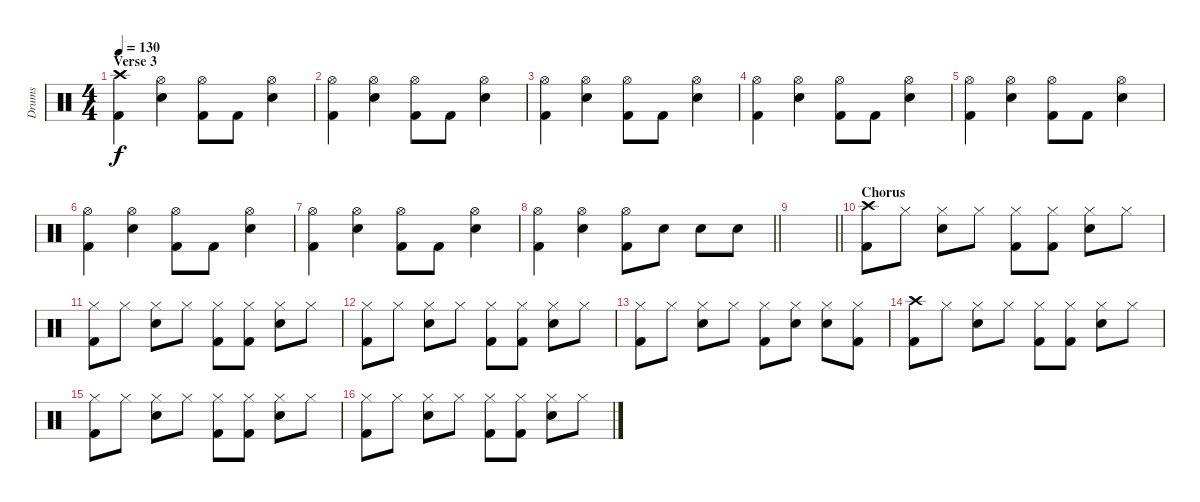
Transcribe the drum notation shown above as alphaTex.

\track ("Drums" "Drums") {instrument percussion}
\staff {score}
\articulation defaults
\ts (4 4)
\section ("" "Verse 3")
\tempo 130
\clef neutral
\ks c
("Crash high (hit)" "Kick (hit) 2").4{dy f} ("Hi-Hat (open)" "Electric Snare (hit)").4 ("Hi-Hat (open)" "Kick (hit) 2").8 "Kick (hit) 2".8 ("Hi-Hat (open)" "Electric Snare (hit)").4 |
("Hi-Hat (open)" "Kick (hit) 2").4 ("Hi-Hat (open)" "Electric Snare (hit)").4 ("Hi-Hat (open)" "Kick (hit) 2").8 "Kick (hit) 2".8 ("Hi-Hat (open)" "Electric Snare (hit)").4 |
("Hi-Hat (open)" "Kick (hit) 2").4 ("Hi-Hat (open)" "Electric Snare (hit)").4 ("Hi-Hat (open)" "Kick (hit) 2").8 "Kick (hit) 2".8 ("Hi-Hat (open)" "Electric Snare (hit)").4 |
("Hi-Hat (open)" "Kick (hit) 2").4 ("Hi-Hat (open)" "Electric Snare (hit)").4 ("Hi-Hat (open)" "Kick (hit) 2").8 "Kick (hit) 2".8 ("Hi-Hat (open)" "Electric Snare (hit)").4 |
("Hi-Hat (open)" "Kick (hit) 2").4 ("Hi-Hat (open)" "Electric Snare (hit)").4 ("Hi-Hat (open)" "Kick (hit) 2").8 "Kick (hit) 2".8 ("Hi-Hat (open)" "Electric Snare (hit)").4 |
("Hi-Hat (open)" "Kick (hit) 2").4 ("Hi-Hat (open)" "Electric Snare (hit)").4 ("Hi-Hat (open)" "Kick (hit) 2").8 "Kick (hit) 2".8 ("Hi-Hat (open)" "Electric Snare (hit)").4 |
("Hi-Hat (open)" "Kick (hit) 2").4 ("Hi-Hat (open)" "Electric Snare (hit)").4 ("Hi-Hat (open)" "Kick (hit) 2").8 "Kick (hit) 2".8 ("Hi-Hat (open)" "Electric Snare (hit)").4 |
\barLineRight lightlight
("Hi-Hat (open)" "Kick (hit) 2").4 ("Hi-Hat (open)" "Electric Snare (hit)").4 ("Hi-Hat (open)" "Kick (hit) 2").8 "Electric Snare (hit)".8 "Electric Snare (hit)".8 "Electric Snare (hit)".8 |
\barLineRight lightlight
|
\section ("" "Chorus")
("Crash high (hit)" "Kick (hit) 2").8 "Hi-Hat (closed)".8 ("Hi-Hat (closed)" "Electric Snare (hit)").8 "Hi-Hat (closed)".8 ("Hi-Hat (closed)" "Kick (hit) 2").8 ("Hi-Hat (closed)" "Kick (hit) 2").8 ("Hi-Hat (closed)" "Electric Snare (hit)").8 "Hi-Hat (closed)".8 |
("Hi-Hat (closed)" "Kick (hit) 2").8 "Hi-Hat (closed)".8 ("Hi-Hat (closed)" "Electric Snare (hit)").8 "Hi-Hat (closed)".8 ("Hi-Hat (closed)" "Kick (hit) 2").8 ("Hi-Hat (closed)" "Kick (hit) 2").8 ("Hi-Hat (closed)" "Electric Snare (hit)").8 "Hi-Hat (closed)".8 |
("Hi-Hat (closed)" "Kick (hit) 2").8 "Hi-Hat (closed)".8 ("Hi-Hat (closed)" "Electric Snare (hit)").8 "Hi-Hat (closed)".8 ("Hi-Hat (closed)" "Kick (hit) 2").8 ("Hi-Hat (closed)" "Kick (hit) 2").8 ("Hi-Hat (closed)" "Electric Snare (hit)").8 "Hi-Hat (closed)".8 |
("Hi-Hat (closed)" "Kick (hit) 2").8 "Hi-Hat (closed)".8 ("Hi-Hat (closed)" "Electric Snare (hit)").8 "Hi-Hat (closed)".8 ("Hi-Hat (closed)" "Kick (hit) 2").8 ("Hi-Hat (closed)" "Electric Snare (hit)").8 ("Hi-Hat (closed)" "Electric Snare (hit)").8 ("Hi-Hat (closed)" "Kick (hit) 2").8 |
("Crash high (hit)" "Kick (hit) 2").8 "Hi-Hat (closed)".8 ("Hi-Hat (closed)" "Electric Snare (hit)").8 "Hi-Hat (closed)".8 ("Hi-Hat (closed)" "Kick (hit) 2").8 ("Hi-Hat (closed)" "Kick (hit) 2").8 ("Hi-Hat (closed)" "Electric Snare (hit)").8 "Hi-Hat (closed)".8 |
("Hi-Hat (closed)" "Kick (hit) 2").8 "Hi-Hat (closed)".8 ("Hi-Hat (closed)" "Electric Snare (hit)").8 "Hi-Hat (closed)".8 ("Hi-Hat (closed)" "Kick (hit) 2").8 ("Hi-Hat (closed)" "Kick (hit) 2").8 ("Hi-Hat (closed)" "Electric Snare (hit)").8 "Hi-Hat (closed)".8 |
("Hi-Hat (closed)" "Kick (hit) 2").8 "Hi-Hat (closed)".8 ("Hi-Hat (closed)" "Electric Snare (hit)").8 "Hi-Hat (closed)".8 ("Hi-Hat (closed)" "Kick (hit) 2").8 ("Hi-Hat (closed)" "Kick (hit) 2").8 ("Hi-Hat (closed)" "Electric Snare (hit)").8 "Hi-Hat (closed)".8
